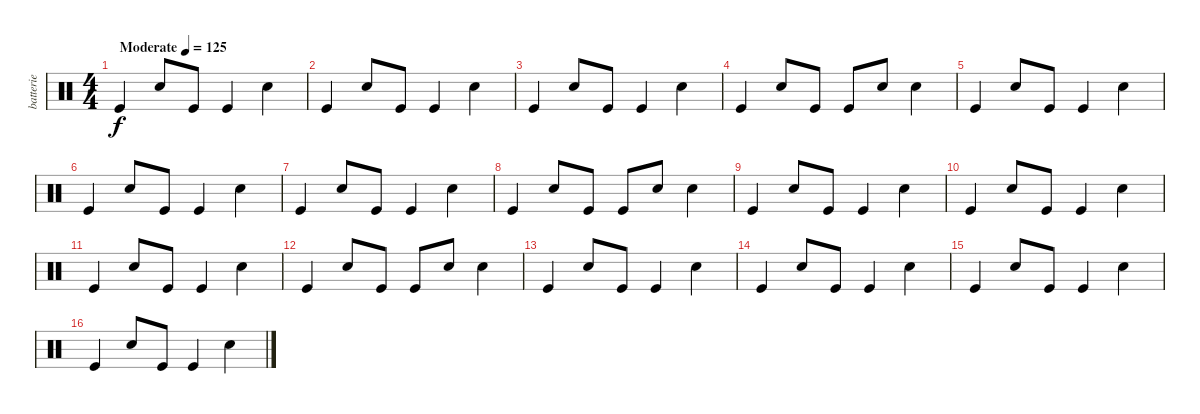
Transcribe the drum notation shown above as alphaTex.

\track ("batterie" "batterie") {instrument percussion}
\staff {score}
\articulation defaults
\ts (4 4)
\tempo (125 "Moderate")
\clef neutral
\ks c "Kick (hit)".4{dy f} "Snare (hit) 2".8 "Kick (hit)".8 "Kick (hit)".4 "Snare (hit) 2".4
|
"Kick (hit)".4 "Snare (hit) 2".8 "Kick (hit)".8 "Kick (hit)".4 "Snare (hit) 2".4 |
"Kick (hit)".4 "Snare (hit) 2".8 "Kick (hit)".8 "Kick (hit)".4 "Snare (hit) 2".4 |
"Kick (hit)".4 "Snare (hit) 2".8 "Kick (hit)".8 "Kick (hit)".8 "Snare (hit) 2".8 "Snare (hit) 2".4 |
"Kick (hit)".4 "Snare (hit) 2".8 "Kick (hit)".8 "Kick (hit)".4 "Snare (hit) 2".4 |
"Kick (hit)".4 "Snare (hit) 2".8 "Kick (hit)".8 "Kick (hit)".4 "Snare (hit) 2".4 |
"Kick (hit)".4 "Snare (hit) 2".8 "Kick (hit)".8 "Kick (hit)".4 "Snare (hit) 2".4 |
"Kick (hit)".4 "Snare (hit) 2".8 "Kick (hit)".8 "Kick (hit)".8 "Snare (hit) 2".8 "Snare (hit) 2".4 |
"Kick (hit)".4 "Snare (hit) 2".8 "Kick (hit)".8 "Kick (hit)".4 "Snare (hit) 2".4 |
"Kick (hit)".4 "Snare (hit) 2".8 "Kick (hit)".8 "Kick (hit)".4 "Snare (hit) 2".4 |
"Kick (hit)".4 "Snare (hit) 2".8 "Kick (hit)".8 "Kick (hit)".4 "Snare (hit) 2".4 |
"Kick (hit)".4 "Snare (hit) 2".8 "Kick (hit)".8 "Kick (hit)".8 "Snare (hit) 2".8 "Snare (hit) 2".4 |
"Kick (hit)".4 "Snare (hit) 2".8 "Kick (hit)".8 "Kick (hit)".4 "Snare (hit) 2".4 |
"Kick (hit)".4 "Snare (hit) 2".8 "Kick (hit)".8 "Kick (hit)".4 "Snare (hit) 2".4 |
"Kick (hit)".4 "Snare (hit) 2".8 "Kick (hit)".8 "Kick (hit)".4 "Snare (hit) 2".4 |
"Kick (hit)".4 "Snare (hit) 2".8 "Kick (hit)".8 "Kick (hit)".4 "Snare (hit) 2".4
